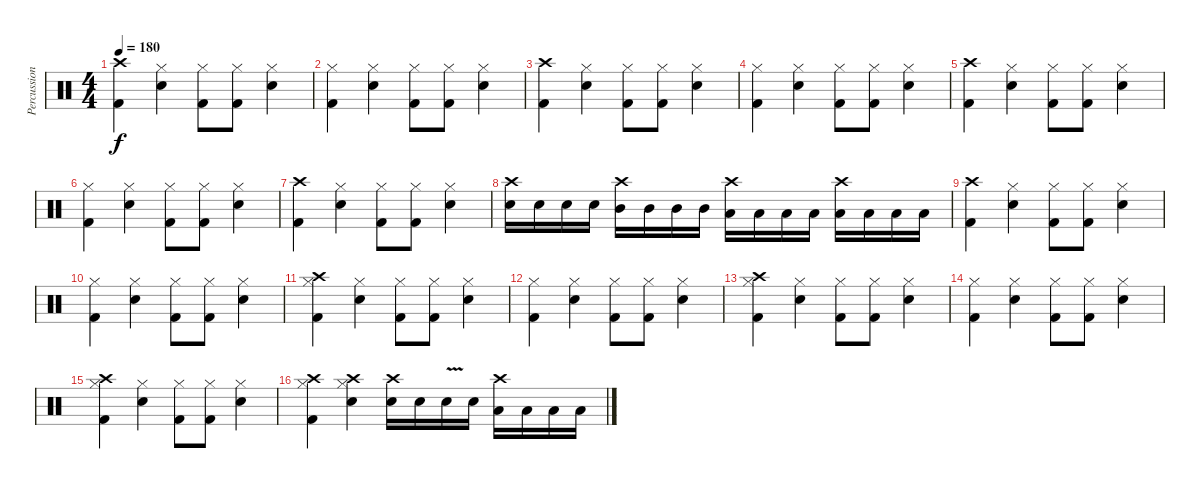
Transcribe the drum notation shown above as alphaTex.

\track ("Percussion" "Percussion") {instrument percussion}
\staff {score}
\articulation defaults
\ts (4 4)
\tempo 180
\clef neutral
\ks c
("Crash high (hit)" "Kick (hit) 2").4{dy f} ("Hi-Hat (closed)" "Snare (hit) 2").4 ("Hi-Hat (closed)" "Kick (hit) 2").8 ("Hi-Hat (closed)" "Kick (hit) 2").8 ("Hi-Hat (closed)" "Snare (hit) 2").4 |
("Hi-Hat (closed)" "Kick (hit) 2").4 ("Hi-Hat (closed)" "Snare (hit) 2").4 ("Hi-Hat (closed)" "Kick (hit) 2").8 ("Hi-Hat (closed)" "Kick (hit) 2").8 ("Hi-Hat (closed)" "Snare (hit) 2").4 |
("Crash high (hit)" "Kick (hit) 2").4 ("Hi-Hat (closed)" "Snare (hit) 2").4 ("Hi-Hat (closed)" "Kick (hit) 2").8 ("Hi-Hat (closed)" "Kick (hit) 2").8 ("Hi-Hat (closed)" "Snare (hit) 2").4 |
("Hi-Hat (closed)" "Kick (hit) 2").4 ("Hi-Hat (closed)" "Snare (hit) 2").4 ("Hi-Hat (closed)" "Kick (hit) 2").8 ("Hi-Hat (closed)" "Kick (hit) 2").8 ("Hi-Hat (closed)" "Snare (hit) 2").4 |
("Crash high (hit)" "Kick (hit) 2").4 ("Hi-Hat (closed)" "Snare (hit) 2").4 ("Hi-Hat (closed)" "Kick (hit) 2").8 ("Hi-Hat (closed)" "Kick (hit) 2").8 ("Hi-Hat (closed)" "Snare (hit) 2").4 |
("Hi-Hat (closed)" "Kick (hit) 2").4 ("Hi-Hat (closed)" "Snare (hit) 2").4 ("Hi-Hat (closed)" "Kick (hit) 2").8 ("Hi-Hat (closed)" "Kick (hit) 2").8 ("Hi-Hat (closed)" "Snare (hit) 2").4 |
("Crash high (hit)" "Kick (hit) 2").4 ("Hi-Hat (closed)" "Snare (hit) 2").4 ("Hi-Hat (closed)" "Kick (hit) 2").8 ("Hi-Hat (closed)" "Kick (hit) 2").8 ("Hi-Hat (closed)" "Snare (hit) 2").4 |
("Crash high (hit)" "Snare (hit) 2").16 "Snare (hit) 2".16 "Snare (hit) 2".16 "Snare (hit) 2".16 ("Crash high (hit)" "Mid Tom (hit)").16 "Mid Tom (hit)".16 "Mid Tom (hit)".16 "Mid Tom (hit)".16 ("Crash high (hit)" "Low Tom (hit)").16 "Low Tom (hit)".16 "Low Tom (hit)".16 "Low Tom (hit)".16 ("Crash high (hit)" "Low Floor Tom (hit)").16 "Low Floor Tom (hit)".16 "Low Floor Tom (hit)".16 "Low Floor Tom (hit)".16 |
("Crash high (hit)" "Kick (hit) 2").4 ("Hi-Hat (closed)" "Snare (hit) 2").4 ("Hi-Hat (closed)" "Kick (hit) 2").8 ("Hi-Hat (closed)" "Kick (hit) 2").8 ("Hi-Hat (closed)" "Snare (hit) 2").4 |
("Hi-Hat (closed)" "Kick (hit) 2").4 ("Hi-Hat (closed)" "Snare (hit) 2").4 ("Hi-Hat (closed)" "Kick (hit) 2").8 ("Hi-Hat (closed)" "Kick (hit) 2").8 ("Hi-Hat (closed)" "Snare (hit) 2").4 |
("Crash high (hit)" "Hi-Hat (closed)" "Kick (hit) 2").4 ("Hi-Hat (closed)" "Snare (hit) 2").4 ("Hi-Hat (closed)" "Kick (hit) 2").8 ("Hi-Hat (closed)" "Kick (hit) 2").8 ("Hi-Hat (closed)" "Snare (hit) 2").4 |
("Hi-Hat (closed)" "Kick (hit) 2").4 ("Hi-Hat (closed)" "Snare (hit) 2").4 ("Hi-Hat (closed)" "Kick (hit) 2").8 ("Hi-Hat (closed)" "Kick (hit) 2").8 ("Hi-Hat (closed)" "Snare (hit) 2").4 |
("Crash high (hit)" "Hi-Hat (closed)" "Kick (hit) 2").4 ("Hi-Hat (closed)" "Snare (hit) 2").4 ("Hi-Hat (closed)" "Kick (hit) 2").8 ("Hi-Hat (closed)" "Kick (hit) 2").8 ("Hi-Hat (closed)" "Snare (hit) 2").4 |
("Hi-Hat (closed)" "Kick (hit) 2").4 ("Hi-Hat (closed)" "Snare (hit) 2").4 ("Hi-Hat (closed)" "Kick (hit) 2").8 ("Hi-Hat (closed)" "Kick (hit) 2").8 ("Hi-Hat (closed)" "Snare (hit) 2").4 |
("Crash high (hit)" "Hi-Hat (closed)" "Kick (hit) 2").4 ("Hi-Hat (closed)" "Snare (hit) 2").4 ("Hi-Hat (closed)" "Kick (hit) 2").8 ("Hi-Hat (closed)" "Kick (hit) 2").8 ("Hi-Hat (closed)" "Snare (hit) 2").4 |
("Crash high (hit)" "Hi-Hat (closed)" "Kick (hit) 2").4 ("Crash high (hit)" "Hi-Hat (closed)" "Snare (hit) 2").4 ("Crash high (hit)" "Snare (hit) 2").16 "Snare (hit) 2".16 "Snare (hit) 2"{v}.16 "Snare (hit) 2".16 ("Crash high (hit)" "Low Floor Tom (hit)").16 "Low Floor Tom (hit)".16 "Low Tom (hit)".16 "Low Tom (hit)".16
